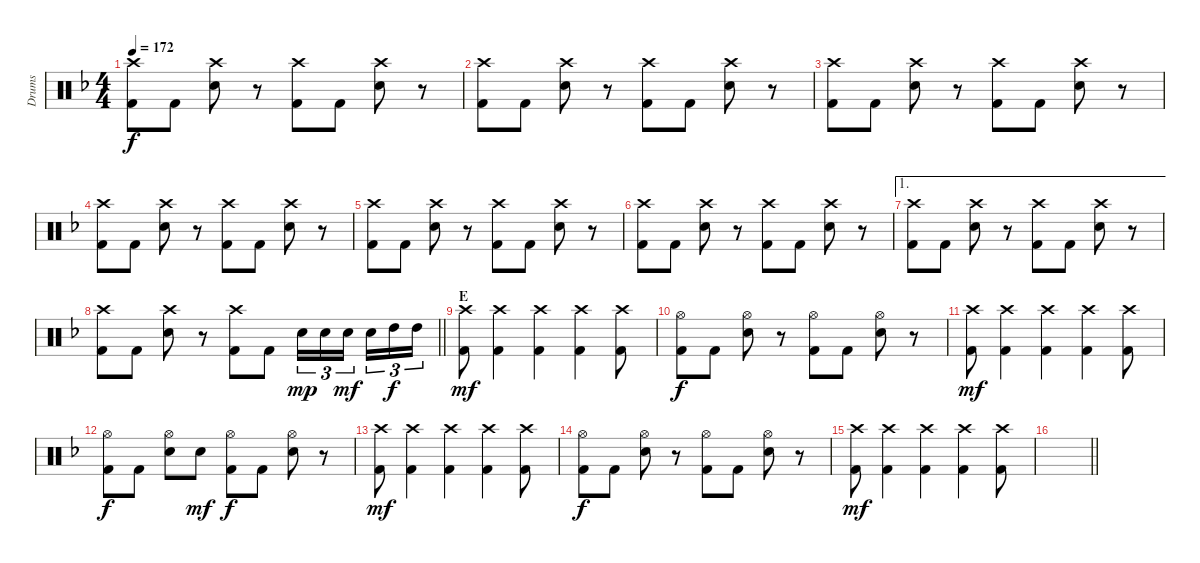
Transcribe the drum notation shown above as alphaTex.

\track ("Drums" "Drums") {instrument percussion}
\staff {score}
\articulation defaults
\ts (4 4)
\tempo 172
\clef neutral
\ks f
("Crash high (hit)" "Kick (hit) 2").8{dy f} "Kick (hit) 2".8 ("Crash high (hit)" "Electric Snare (hit)").8 r.8 ("Crash high (hit)" "Kick (hit) 2").8 "Kick (hit) 2".8 ("Crash high (hit)" "Electric Snare (hit)").8 r.8 |
("Crash high (hit)" "Kick (hit) 2").8 "Kick (hit) 2".8 ("Crash high (hit)" "Electric Snare (hit)").8 r.8 ("Crash high (hit)" "Kick (hit) 2").8 "Kick (hit) 2".8 ("Crash high (hit)" "Electric Snare (hit)").8 r.8 |
("Crash high (hit)" "Kick (hit) 2").8 "Kick (hit) 2".8 ("Crash high (hit)" "Electric Snare (hit)").8 r.8 ("Crash high (hit)" "Kick (hit) 2").8 "Kick (hit) 2".8 ("Crash high (hit)" "Electric Snare (hit)").8 r.8 |
("Crash high (hit)" "Kick (hit) 2").8 "Kick (hit) 2".8 ("Crash high (hit)" "Electric Snare (hit)").8 r.8 ("Crash high (hit)" "Kick (hit) 2").8 "Kick (hit) 2".8 ("Crash high (hit)" "Electric Snare (hit)").8 r.8 |
("Crash high (hit)" "Kick (hit) 2").8 "Kick (hit) 2".8 ("Crash high (hit)" "Electric Snare (hit)").8 r.8 ("Crash high (hit)" "Kick (hit) 2").8 "Kick (hit) 2".8 ("Crash high (hit)" "Electric Snare (hit)").8 r.8 |
("Crash high (hit)" "Kick (hit) 2").8 "Kick (hit) 2".8 ("Crash high (hit)" "Electric Snare (hit)").8 r.8 ("Crash high (hit)" "Kick (hit) 2").8 "Kick (hit) 2".8 ("Crash high (hit)" "Electric Snare (hit)").8 r.8 |
\ae 1
("Crash high (hit)" "Kick (hit) 2").8 "Kick (hit) 2".8 ("Crash high (hit)" "Electric Snare (hit)").8 r.8 ("Crash high (hit)" "Kick (hit) 2").8 "Kick (hit) 2".8 ("Crash high (hit)" "Electric Snare (hit)").8 r.8 |
\barLineRight lightlight
("Crash high (hit)" "Kick (hit) 2").8 "Kick (hit) 2".8 ("Crash high (hit)" "Electric Snare (hit)").8 r.8 ("Crash high (hit)" "Kick (hit) 2").8 "Kick (hit) 2".8 "Electric Snare (hit)".16{tu (3 2) dy mp} "Electric Snare (hit)".16{tu (3 2)} "Electric Snare (hit)".16{tu (3 2) dy mf} "Electric Snare (hit)".16{tu (3 2)} "High Tom (hit)".16{tu (3 2) dy f} "High Tom (hit)".16{tu (3 2)} |
\section ("" "E")
("Crash high (hit)" "Kick (hit) 2").8{dy mf} ("Crash high (hit)" "Kick (hit) 2").4 ("Crash high (hit)" "Kick (hit) 2").4 ("Crash high (hit)" "Kick (hit) 2").4 ("Crash high (hit)" "Kick (hit) 2").8 |
("Hi-Hat (open)" "Kick (hit) 2").8{dy f} "Kick (hit) 2".8 ("Hi-Hat (open)" "Electric Snare (hit)").8 r.8 ("Hi-Hat (open)" "Kick (hit) 2").8 "Kick (hit) 2".8 ("Hi-Hat (open)" "Electric Snare (hit)").8 r.8 |
("Crash high (hit)" "Kick (hit) 2").8{dy mf} ("Crash high (hit)" "Kick (hit) 2").4 ("Crash high (hit)" "Kick (hit) 2").4 ("Crash high (hit)" "Kick (hit) 2").4 ("Crash high (hit)" "Kick (hit) 2").8 |
("Hi-Hat (open)" "Kick (hit) 2").8{dy f} "Kick (hit) 2".8 ("Hi-Hat (open)" "Electric Snare (hit)").8 "Electric Snare (hit)".8{dy mf} ("Hi-Hat (open)" "Kick (hit) 2").8{dy f} "Kick (hit) 2".8 ("Hi-Hat (open)" "Electric Snare (hit)").8 r.8 |
("Crash high (hit)" "Kick (hit) 2").8{dy mf} ("Crash high (hit)" "Kick (hit) 2").4 ("Crash high (hit)" "Kick (hit) 2").4 ("Crash high (hit)" "Kick (hit) 2").4 ("Crash high (hit)" "Kick (hit) 2").8 |
("Hi-Hat (open)" "Kick (hit) 2").8{dy f} "Kick (hit) 2".8 ("Hi-Hat (open)" "Electric Snare (hit)").8 r.8 ("Hi-Hat (open)" "Kick (hit) 2").8 "Kick (hit) 2".8 ("Hi-Hat (open)" "Electric Snare (hit)").8 r.8 |
("Crash high (hit)" "Kick (hit) 2").8{dy mf} ("Crash high (hit)" "Kick (hit) 2").4 ("Crash high (hit)" "Kick (hit) 2").4 ("Crash high (hit)" "Kick (hit) 2").4 ("Crash high (hit)" "Kick (hit) 2").8 |
\barLineRight lightlight
